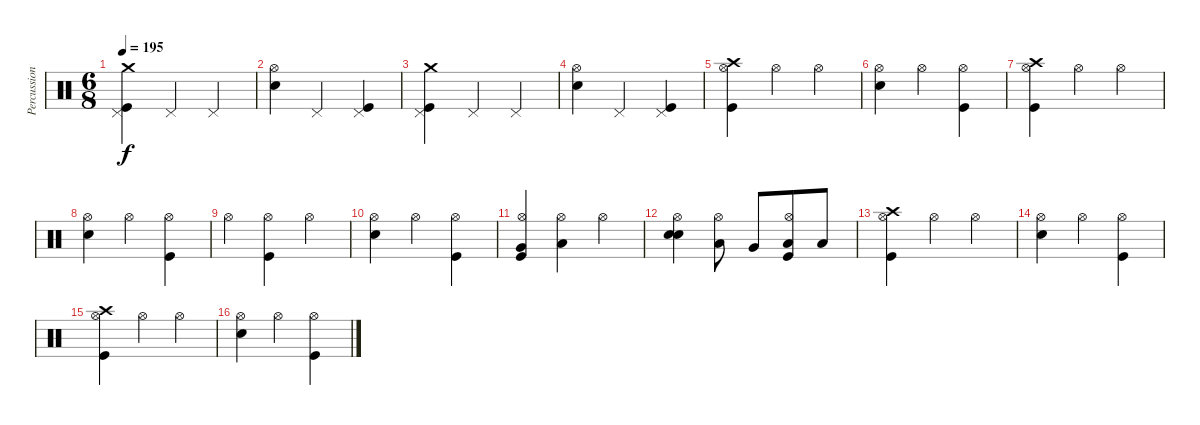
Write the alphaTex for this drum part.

\track ("Percussion" "Percussion") {instrument percussion}
\staff {score}
\articulation defaults
\ts (6 8)
\tempo 195
\clef neutral
\ks c
("Crash medium (hit)" "Pedal Hi-Hat (hit)" "Kick (hit)").4{dy f} "Pedal Hi-Hat (hit)".4 "Pedal Hi-Hat (hit)".4 |
("Hi-Hat (open)" "Electric Snare (hit)").4 "Pedal Hi-Hat (hit)".4 ("Pedal Hi-Hat (hit)" "Kick (hit)").4 |
("Crash medium (hit)" "Pedal Hi-Hat (hit)" "Kick (hit)").4 "Pedal Hi-Hat (hit)".4 "Pedal Hi-Hat (hit)".4 |
("Hi-Hat (open)" "Electric Snare (hit)").4 "Pedal Hi-Hat (hit)".4 ("Pedal Hi-Hat (hit)" "Kick (hit)").4 |
("Crash high (hit)" "Hi-Hat (open)" "Kick (hit)").4 "Hi-Hat (open)".4 "Hi-Hat (open)".4 |
("Hi-Hat (open)" "Electric Snare (hit)").4 "Hi-Hat (open)".4 ("Hi-Hat (open)" "Kick (hit)").4 |
("Crash high (hit)" "Hi-Hat (open)" "Kick (hit)").4 "Hi-Hat (open)".4 "Hi-Hat (open)".4 |
("Hi-Hat (open)" "Electric Snare (hit)").4 "Hi-Hat (open)".4 ("Hi-Hat (open)" "Kick (hit)").4 |
"Hi-Hat (open)".4 ("Hi-Hat (open)" "Kick (hit)").4 "Hi-Hat (open)".4 |
("Hi-Hat (open)" "Electric Snare (hit)").4 "Hi-Hat (open)".4 ("Hi-Hat (open)" "Kick (hit)").4 |
("Very Low Tom (hit)" "Hi-Hat (open)" "Kick (hit)").4 ("Low Floor Tom (hit)" "Hi-Hat (open)").4 "Hi-Hat (open)".4 |
("Electric Snare (hit)" "Hi-Hat (open)" "Electric Snare (hit)").4 ("Low Tom (hit)" "Hi-Hat (open)").8 "Very Low Tom (hit)".8 ("Low Floor Tom (hit)" "Hi-Hat (open)" "Kick (hit)").8 "Low Floor Tom (hit)".8 |
("Crash high (hit)" "Hi-Hat (open)" "Kick (hit)").4 "Hi-Hat (open)".4 "Hi-Hat (open)".4 |
("Hi-Hat (open)" "Electric Snare (hit)").4 "Hi-Hat (open)".4 ("Hi-Hat (open)" "Kick (hit)").4 |
("Crash high (hit)" "Hi-Hat (open)" "Kick (hit)").4 "Hi-Hat (open)".4 "Hi-Hat (open)".4 |
("Hi-Hat (open)" "Electric Snare (hit)").4 "Hi-Hat (open)".4 ("Hi-Hat (open)" "Kick (hit)").4
